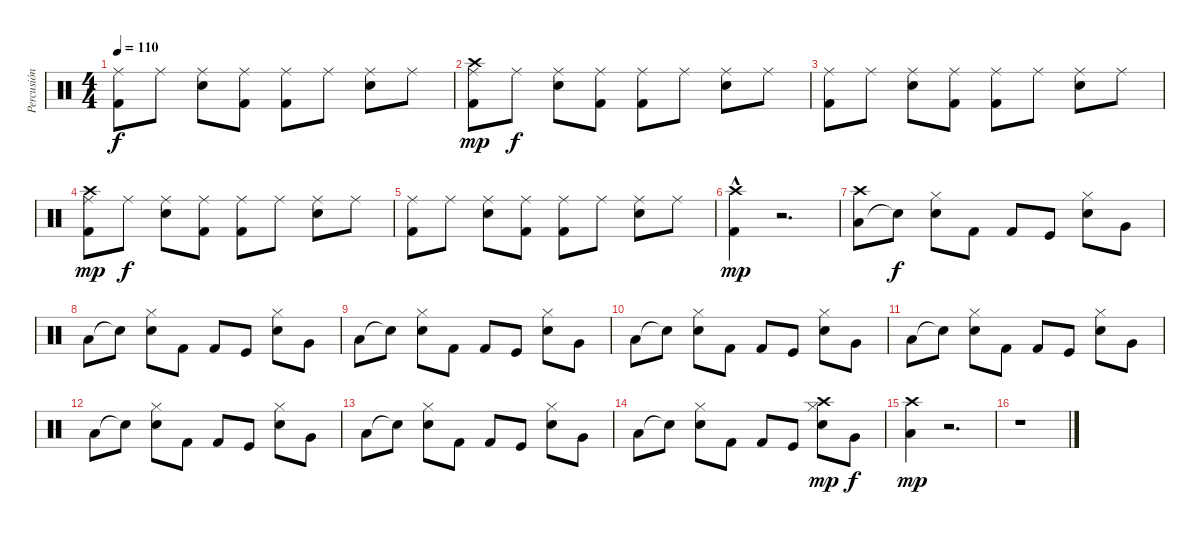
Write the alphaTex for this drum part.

\track ("Percusión" "Percusión") {instrument percussion}
\staff {score}
\articulation defaults
\ts (4 4)
\tempo 110
\clef neutral
\ks c
("Ride (middle)" "Kick (hit) 2").8{dy f} "Ride (middle)".8 ("Ride (middle)" "Snare (hit) 2").8 ("Ride (middle)" "Kick (hit) 2").8 ("Ride (middle)" "Kick (hit) 2").8 "Ride (middle)".8 ("Ride (middle)" "Snare (hit) 2").8 "Ride (middle)".8 |
("Ride (middle)" "Kick (hit) 2" "Crash high (hit)").8{dy mp} "Ride (middle)".8{dy f} ("Ride (middle)" "Snare (hit) 2").8 ("Ride (middle)" "Kick (hit) 2").8 ("Ride (middle)" "Kick (hit) 2").8 "Ride (middle)".8 ("Ride (middle)" "Snare (hit) 2").8 "Ride (middle)".8 |
("Ride (middle)" "Kick (hit) 2").8 "Ride (middle)".8 ("Ride (middle)" "Snare (hit) 2").8 ("Ride (middle)" "Kick (hit) 2").8 ("Ride (middle)" "Kick (hit) 2").8 "Ride (middle)".8 ("Ride (middle)" "Snare (hit) 2").8 "Ride (middle)".8 |
("Ride (middle)" "Kick (hit) 2" "Crash high (hit)").8{dy mp} "Ride (middle)".8{dy f} ("Ride (middle)" "Snare (hit) 2").8 ("Ride (middle)" "Kick (hit) 2").8 ("Ride (middle)" "Kick (hit) 2").8 "Ride (middle)".8 ("Ride (middle)" "Snare (hit) 2").8 "Ride (middle)".8 |
("Ride (middle)" "Kick (hit) 2").8 "Ride (middle)".8 ("Ride (middle)" "Snare (hit) 2").8 ("Ride (middle)" "Kick (hit) 2").8 ("Ride (middle)" "Kick (hit) 2").8 "Ride (middle)".8 ("Ride (middle)" "Snare (hit) 2").8 "Ride (middle)".8 |
("Kick (hit) 2" "Crash high (hit)"{hac}).4{dy mp} r.2{d} |
("Low Floor Tom (hit)" "Crash high (hit)").8 "Snare (hit)"{t}.8{dy f} ("Snare (hit) 2" "Hi-Hat (closed)").8 "Kick (hit) 2".8 "Kick (hit) 2".8 "Kick (hit)".8 ("Snare (hit) 2" "Hi-Hat (closed)").8 "Very Low Tom (hit)".8 |
"Low Floor Tom (hit)".8 "Snare (hit)"{t}.8 ("Snare (hit) 2" "Hi-Hat (closed)").8 "Kick (hit) 2".8 "Kick (hit) 2".8 "Kick (hit)".8 ("Snare (hit) 2" "Hi-Hat (closed)").8 "Very Low Tom (hit)".8 |
"Low Floor Tom (hit)".8 "Snare (hit)"{t}.8 ("Snare (hit) 2" "Hi-Hat (closed)").8 "Kick (hit) 2".8 "Kick (hit) 2".8 "Kick (hit)".8 ("Snare (hit) 2" "Hi-Hat (closed)").8 "Very Low Tom (hit)".8 |
"Low Floor Tom (hit)".8 "Snare (hit)"{t}.8 ("Snare (hit) 2" "Hi-Hat (closed)").8 "Kick (hit) 2".8 "Kick (hit) 2".8 "Kick (hit)".8 ("Snare (hit) 2" "Hi-Hat (closed)").8 "Very Low Tom (hit)".8 |
"Low Floor Tom (hit)".8 "Snare (hit)"{t}.8 ("Snare (hit) 2" "Hi-Hat (closed)").8 "Kick (hit) 2".8 "Kick (hit) 2".8 "Kick (hit)".8 ("Snare (hit) 2" "Hi-Hat (closed)").8 "Very Low Tom (hit)".8 |
"Low Floor Tom (hit)".8 "Snare (hit)"{t}.8 ("Snare (hit) 2" "Hi-Hat (closed)").8 "Kick (hit) 2".8 "Kick (hit) 2".8 "Kick (hit)".8 ("Snare (hit) 2" "Hi-Hat (closed)").8 "Very Low Tom (hit)".8 |
"Low Floor Tom (hit)".8 "Snare (hit)"{t}.8 ("Snare (hit) 2" "Hi-Hat (closed)").8 "Kick (hit) 2".8 "Kick (hit) 2".8 "Kick (hit)".8 ("Snare (hit) 2" "Hi-Hat (closed)").8 "Very Low Tom (hit)".8 |
"Low Floor Tom (hit)".8 "Snare (hit)"{t}.8 ("Snare (hit) 2" "Hi-Hat (closed)").8 "Kick (hit) 2".8 "Kick (hit) 2".8 "Kick (hit)".8 ("Snare (hit) 2" "Crash high (hit)" "Hi-Hat (closed)").8{dy mp} "Very Low Tom (hit)".8{dy f} |
("Low Floor Tom (hit)" "Crash high (hit)").4{dy mp} r.2{d} |
r.1
